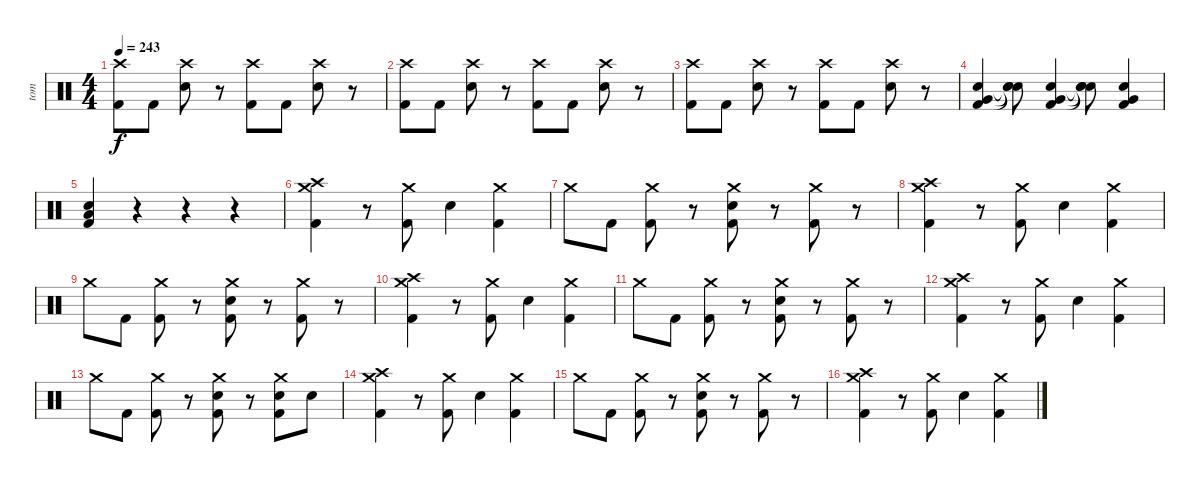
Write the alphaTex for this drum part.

\track ("tom" "tom") {instrument percussion}
\staff {score}
\articulation defaults
\ts (4 4)
\tempo 243
\clef neutral
\ks c
("Crash high (hit)" "Kick (hit) 2").8{dy f} "Kick (hit) 2".8 ("Crash high (hit)" "Electric Snare (hit)").8 r.8 ("Crash high (hit)" "Kick (hit) 2").8 "Kick (hit) 2".8 ("Crash high (hit)" "Electric Snare (hit)").8 r.8 |
("Crash high (hit)" "Kick (hit) 2").8 "Kick (hit) 2".8 ("Crash high (hit)" "Electric Snare (hit)").8 r.8 ("Crash high (hit)" "Kick (hit) 2").8 "Kick (hit) 2".8 ("Crash high (hit)" "Electric Snare (hit)").8 r.8 |
("Crash high (hit)" "Kick (hit) 2").8 "Kick (hit) 2".8 ("Crash high (hit)" "Electric Snare (hit)").8 r.8 ("Crash high (hit)" "Kick (hit) 2").8 "Kick (hit) 2".8 ("Crash high (hit)" "Electric Snare (hit)").8 r.8 |
("Very Low Tom (hit)" "Electric Snare (hit)" "Kick (hit) 2").4 ("Snare (hit)"{t} "Snare (hit)"{t} "Snare (hit)"{t}).8 ("Very Low Tom (hit)" "Electric Snare (hit)" "Kick (hit) 2").4 ("Snare (hit)"{t} "Snare (hit)"{t} "Snare (hit)"{t}).8 ("Very Low Tom (hit)" "Electric Snare (hit)" "Kick (hit) 2").4 |
("Low Tom (hit)" "Electric Snare (hit)" "Kick (hit) 2").4 r.4 r.4 r.4 |
("Crash high (hit)" "Crash medium (hit)" "Kick (hit) 2").4 r.8 ("Crash medium (hit)" "Kick (hit) 2").8 "Electric Snare (hit)".4 ("Crash medium (hit)" "Kick (hit) 2").4 |
"Crash medium (hit)".8 "Kick (hit) 2".8 ("Crash medium (hit)" "Kick (hit) 2").8 r.8 ("Crash medium (hit)" "Electric Snare (hit)" "Kick (hit) 2").8 r.8 ("Crash medium (hit)" "Kick (hit) 2").8 r.8 |
("Crash high (hit)" "Crash medium (hit)" "Kick (hit) 2").4 r.8 ("Crash medium (hit)" "Kick (hit) 2").8 "Electric Snare (hit)".4 ("Crash medium (hit)" "Kick (hit) 2").4 |
"Crash medium (hit)".8 "Kick (hit) 2".8 ("Crash medium (hit)" "Kick (hit) 2").8 r.8 ("Crash medium (hit)" "Electric Snare (hit)" "Kick (hit) 2").8 r.8 ("Crash medium (hit)" "Kick (hit) 2").8 r.8 |
("Crash high (hit)" "Crash medium (hit)" "Kick (hit) 2").4 r.8 ("Crash medium (hit)" "Kick (hit) 2").8 "Electric Snare (hit)".4 ("Crash medium (hit)" "Kick (hit) 2").4 |
"Crash medium (hit)".8 "Kick (hit) 2".8 ("Crash medium (hit)" "Kick (hit) 2").8 r.8 ("Crash medium (hit)" "Electric Snare (hit)" "Kick (hit) 2").8 r.8 ("Crash medium (hit)" "Kick (hit) 2").8 r.8 |
("Crash high (hit)" "Crash medium (hit)" "Kick (hit) 2").4 r.8 ("Crash medium (hit)" "Kick (hit) 2").8 "Electric Snare (hit)".4 ("Crash medium (hit)" "Kick (hit) 2").4 |
"Crash medium (hit)".8 "Kick (hit) 2".8 ("Crash medium (hit)" "Kick (hit) 2").8 r.8 ("Crash medium (hit)" "Electric Snare (hit)" "Kick (hit) 2").8 r.8 ("Crash medium (hit)" "Electric Snare (hit)" "Kick (hit) 2").8 "Electric Snare (hit)".8 |
("Crash high (hit)" "Crash medium (hit)" "Kick (hit) 2").4 r.8 ("Crash medium (hit)" "Kick (hit) 2").8 "Electric Snare (hit)".4 ("Crash medium (hit)" "Kick (hit) 2").4 |
"Crash medium (hit)".8 "Kick (hit) 2".8 ("Crash medium (hit)" "Kick (hit) 2").8 r.8 ("Crash medium (hit)" "Electric Snare (hit)" "Kick (hit) 2").8 r.8 ("Crash medium (hit)" "Kick (hit) 2").8 r.8 |
("Crash high (hit)" "Crash medium (hit)" "Kick (hit) 2").4 r.8 ("Crash medium (hit)" "Kick (hit) 2").8 "Electric Snare (hit)".4 ("Crash medium (hit)" "Kick (hit) 2").4
